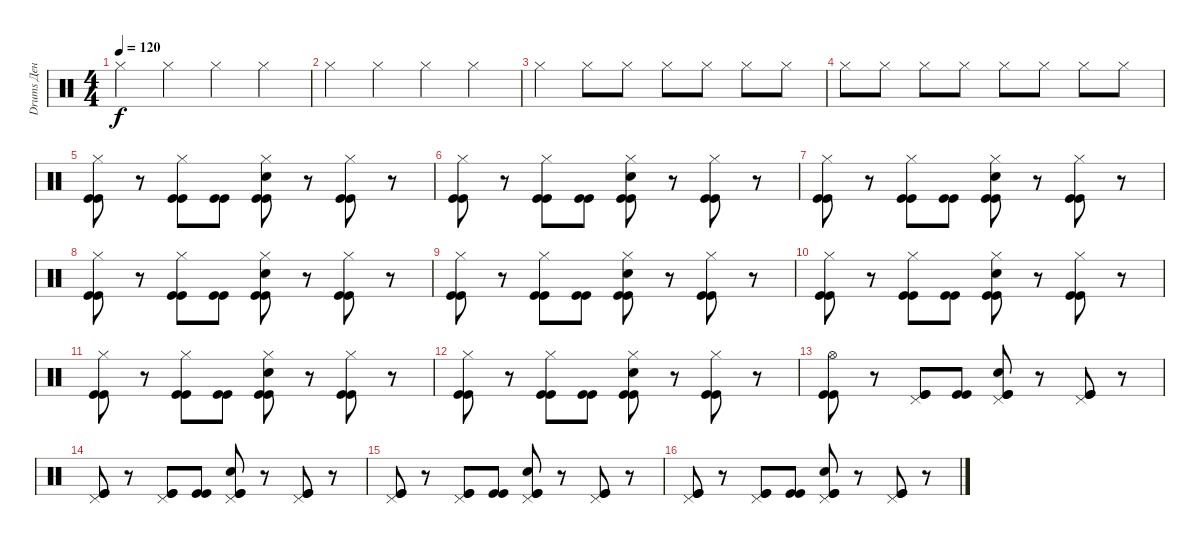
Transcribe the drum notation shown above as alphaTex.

\track ("Drums Ден" "Drums Ден") {instrument percussion}
\staff {score}
\articulation defaults
\ts (4 4)
\tempo 120
\clef neutral
\ks c "Hi-Hat (closed)".4{dy f} "Hi-Hat (closed)".4 "Hi-Hat (closed)".4 "Hi-Hat (closed)".4
|
"Hi-Hat (closed)".4 "Hi-Hat (closed)".4 "Hi-Hat (closed)".4 "Hi-Hat (closed)".4 |
"Hi-Hat (closed)".4 "Hi-Hat (closed)".8 "Hi-Hat (closed)".8 "Hi-Hat (closed)".8 "Hi-Hat (closed)".8 "Hi-Hat (closed)".8 "Hi-Hat (closed)".8 |
"Hi-Hat (closed)".8 "Hi-Hat (closed)".8 "Hi-Hat (closed)".8 "Hi-Hat (closed)".8 "Hi-Hat (closed)".8 "Hi-Hat (closed)".8 "Hi-Hat (closed)".8 "Hi-Hat (closed)".8 |
("Hi-Hat (closed)" "Kick (hit)" "Kick (hit)").8 r.8 ("Hi-Hat (closed)" "Kick (hit)" "Kick (hit)").8 ("Kick (hit)" "Kick (hit)").8 ("Hi-Hat (closed)" "Kick (hit)" "Kick (hit)" "Electric Snare (hit)").8 r.8 ("Hi-Hat (closed)" "Kick (hit)" "Kick (hit)").8 r.8 |
("Hi-Hat (closed)" "Kick (hit)" "Kick (hit)").8 r.8 ("Hi-Hat (closed)" "Kick (hit)" "Kick (hit)").8 ("Kick (hit)" "Kick (hit)").8 ("Hi-Hat (closed)" "Kick (hit)" "Kick (hit)" "Electric Snare (hit)").8 r.8 ("Hi-Hat (closed)" "Kick (hit)" "Kick (hit)").8 r.8 |
("Hi-Hat (closed)" "Kick (hit)" "Kick (hit)").8 r.8 ("Hi-Hat (closed)" "Kick (hit)" "Kick (hit)").8 ("Kick (hit)" "Kick (hit)").8 ("Hi-Hat (closed)" "Kick (hit)" "Kick (hit)" "Electric Snare (hit)").8 r.8 ("Hi-Hat (closed)" "Kick (hit)" "Kick (hit)").8 r.8 |
("Hi-Hat (closed)" "Kick (hit)" "Kick (hit)").8 r.8 ("Hi-Hat (closed)" "Kick (hit)" "Kick (hit)").8 ("Kick (hit)" "Kick (hit)").8 ("Hi-Hat (closed)" "Kick (hit)" "Kick (hit)" "Electric Snare (hit)").8 r.8 ("Hi-Hat (closed)" "Kick (hit)" "Kick (hit)").8 r.8 |
("Hi-Hat (closed)" "Kick (hit)" "Kick (hit)").8 r.8 ("Hi-Hat (closed)" "Kick (hit)" "Kick (hit)").8 ("Kick (hit)" "Kick (hit)").8 ("Hi-Hat (closed)" "Kick (hit)" "Kick (hit)" "Electric Snare (hit)").8 r.8 ("Hi-Hat (closed)" "Kick (hit)" "Kick (hit)").8 r.8 |
("Hi-Hat (closed)" "Kick (hit)" "Kick (hit)").8 r.8 ("Hi-Hat (closed)" "Kick (hit)" "Kick (hit)").8 ("Kick (hit)" "Kick (hit)").8 ("Hi-Hat (closed)" "Kick (hit)" "Kick (hit)" "Electric Snare (hit)").8 r.8 ("Hi-Hat (closed)" "Kick (hit)" "Kick (hit)").8 r.8 |
("Hi-Hat (closed)" "Kick (hit)" "Kick (hit)").8 r.8 ("Hi-Hat (closed)" "Kick (hit)" "Kick (hit)").8 ("Kick (hit)" "Kick (hit)").8 ("Hi-Hat (closed)" "Kick (hit)" "Kick (hit)" "Electric Snare (hit)").8 r.8 ("Hi-Hat (closed)" "Kick (hit)" "Kick (hit)").8 r.8 |
("Hi-Hat (closed)" "Kick (hit)" "Kick (hit)").8 r.8 ("Hi-Hat (closed)" "Kick (hit)" "Kick (hit)").8 ("Kick (hit)" "Kick (hit)").8 ("Hi-Hat (closed)" "Kick (hit)" "Kick (hit)" "Electric Snare (hit)").8 r.8 ("Hi-Hat (closed)" "Kick (hit)" "Kick (hit)").8 r.8 |
("Hi-Hat (open)" "Kick (hit)" "Kick (hit)").8 r.8 ("Pedal Hi-Hat (hit)" "Kick (hit)" "Kick (hit)").8 ("Kick (hit)" "Kick (hit)").8 ("Pedal Hi-Hat (hit)" "Kick (hit)" "Kick (hit)" "Electric Snare (hit)").8 r.8 ("Pedal Hi-Hat (hit)" "Kick (hit)" "Kick (hit)").8 r.8 |
("Pedal Hi-Hat (hit)" "Kick (hit)" "Kick (hit)").8 r.8 ("Pedal Hi-Hat (hit)" "Kick (hit)" "Kick (hit)").8 ("Kick (hit)" "Kick (hit)").8 ("Pedal Hi-Hat (hit)" "Kick (hit)" "Kick (hit)" "Electric Snare (hit)").8 r.8 ("Pedal Hi-Hat (hit)" "Kick (hit)" "Kick (hit)").8 r.8 |
("Pedal Hi-Hat (hit)" "Kick (hit)" "Kick (hit)").8 r.8 ("Pedal Hi-Hat (hit)" "Kick (hit)" "Kick (hit)").8 ("Kick (hit)" "Kick (hit)").8 ("Pedal Hi-Hat (hit)" "Kick (hit)" "Kick (hit)" "Electric Snare (hit)").8 r.8 ("Pedal Hi-Hat (hit)" "Kick (hit)" "Kick (hit)").8 r.8 |
("Pedal Hi-Hat (hit)" "Kick (hit)" "Kick (hit)").8 r.8 ("Pedal Hi-Hat (hit)" "Kick (hit)" "Kick (hit)").8 ("Kick (hit)" "Kick (hit)").8 ("Pedal Hi-Hat (hit)" "Kick (hit)" "Kick (hit)" "Electric Snare (hit)").8 r.8 ("Pedal Hi-Hat (hit)" "Kick (hit)" "Kick (hit)").8 r.8
